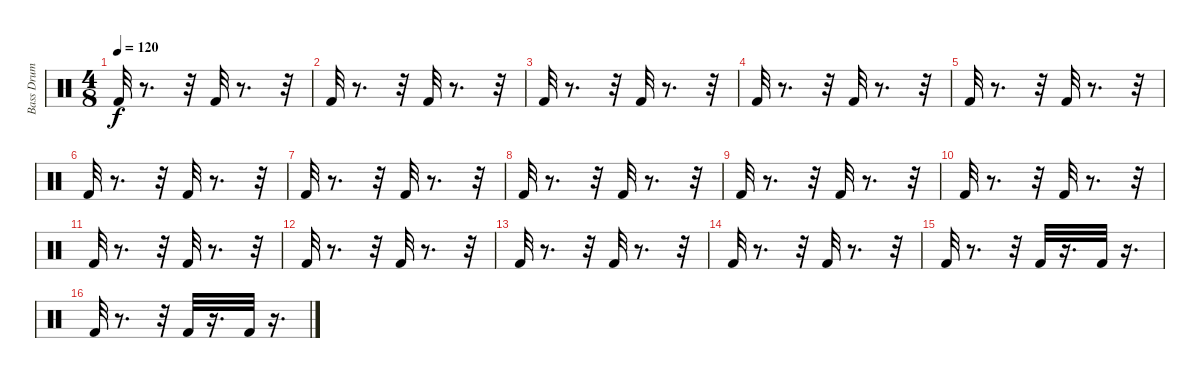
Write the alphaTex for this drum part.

\track ("Bass Drum" "Bass Drum") {instrument percussion}
\staff {score}
\articulation defaults
\ts (4 8)
\tempo 120
\clef neutral
\ks c "Kick (hit) 2".32{dy f}
r.8{d} r.32 "Kick (hit) 2".32 r.8{d} r.32 |
"Kick (hit) 2".32 r.8{d} r.32 "Kick (hit) 2".32 r.8{d} r.32 |
"Kick (hit) 2".32 r.8{d} r.32 "Kick (hit) 2".32 r.8{d} r.32 |
"Kick (hit) 2".32 r.8{d} r.32 "Kick (hit) 2".32 r.8{d} r.32 |
"Kick (hit) 2".32 r.8{d} r.32 "Kick (hit) 2".32 r.8{d} r.32 |
"Kick (hit) 2".32 r.8{d} r.32 "Kick (hit) 2".32 r.8{d} r.32 |
"Kick (hit) 2".32 r.8{d} r.32 "Kick (hit) 2".32 r.8{d} r.32 |
"Kick (hit) 2".32 r.8{d} r.32 "Kick (hit) 2".32 r.8{d} r.32 |
"Kick (hit) 2".32 r.8{d} r.32 "Kick (hit) 2".32 r.8{d} r.32 |
"Kick (hit) 2".32 r.8{d} r.32 "Kick (hit) 2".32 r.8{d} r.32 |
"Kick (hit) 2".32 r.8{d} r.32 "Kick (hit) 2".32 r.8{d} r.32 |
"Kick (hit) 2".32 r.8{d} r.32 "Kick (hit) 2".32 r.8{d} r.32 |
"Kick (hit) 2".32 r.8{d} r.32 "Kick (hit) 2".32 r.8{d} r.32 |
"Kick (hit) 2".32 r.8{d} r.32 "Kick (hit) 2".32 r.8{d} r.32 |
"Kick (hit) 2".32 r.8{d} r.32 "Kick (hit) 2".32 r.16{d} "Kick (hit) 2".32 r.16{d} |
"Kick (hit) 2".32 r.8{d} r.32 "Kick (hit) 2".32 r.16{d} "Kick (hit) 2".32 r.16{d}
